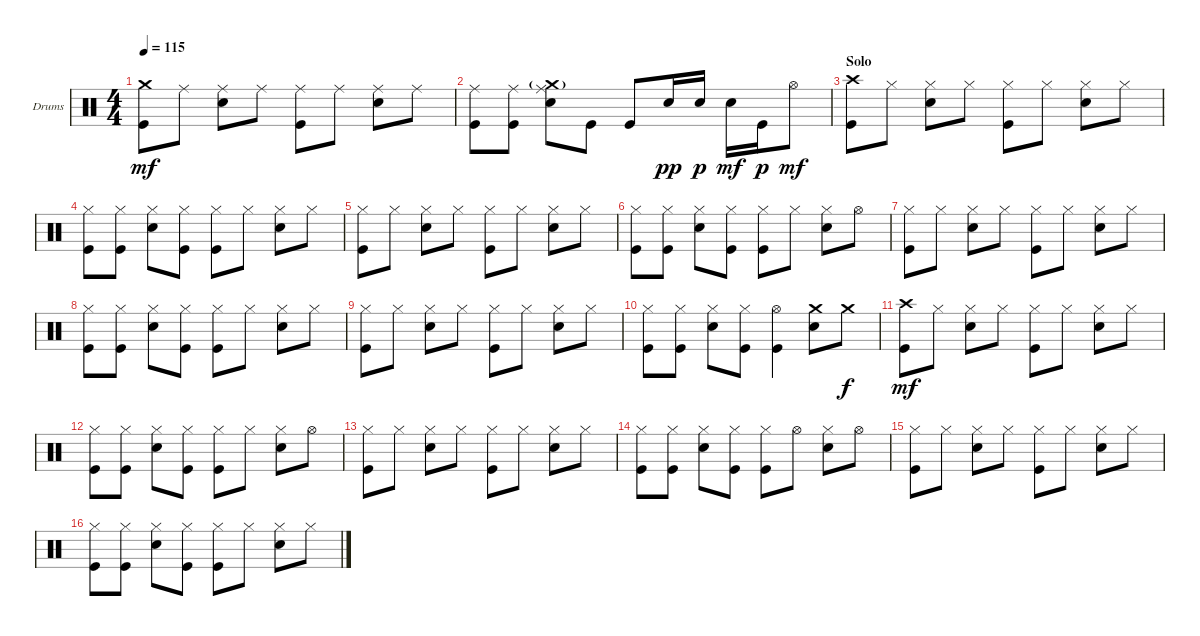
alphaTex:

\defaultSystemsLayout 4
\bracketExtendMode groupsimilarinstruments
\firstSystemTrackNameOrientation horizontal
\otherSystemsTrackNameOrientation horizontal
\track ("Drumkit (Curt Cress)" "Drums") {instrument percussion}
\staff {score}
\articulation defaults
\ts (4 4)
\tempo 115
\clef neutral
\scale
1.02648
\ks c
("Kick (hit)" "Crash medium (hit)").8{dy mf} "Ride (middle)".8 ("Snare (hit) 2" "Ride (middle)").8 "Ride (middle)".8 ("Kick (hit)" "Ride (middle)").8 "Ride (middle)".8 ("Snare (hit) 2" "Ride (middle)").8 "Ride (middle)".8 |
\scale
0.973518 ("Kick (hit)" "Ride (middle)").8 ("Kick (hit)" "Ride (middle)").8 ("Snare (hit) 2" "Ride (middle)" "Crash medium (hit)"{g}).8 "Kick (hit)".8 "Kick (hit)".8 "Snare (hit) 2".16{dy pp} "Snare (hit) 2".16{dy p} "Snare (hit) 2".16{dy mf} "Kick (hit)".16{dy p} "Hi-Hat (open)".8{dy mf} |
\section ("" "Solo")
\scale
1.02648 ("Kick (hit)" "Crash high (hit)").8 "Hi-Hat (closed)".8 ("Hi-Hat (closed)" "Snare (hit) 2").8 "Hi-Hat (closed)".8 ("Hi-Hat (closed)" "Kick (hit)").8 "Hi-Hat (closed)".8 ("Hi-Hat (closed)" "Snare (hit) 2").8 "Hi-Hat (closed)".8 |
\scale
0.973518 ("Kick (hit)" "Hi-Hat (closed)").8 ("Hi-Hat (closed)" "Kick (hit)").8 ("Hi-Hat (closed)" "Snare (hit) 2").8 ("Hi-Hat (closed)" "Kick (hit)").8 ("Hi-Hat (closed)" "Kick (hit)").8 "Hi-Hat (closed)".8 ("Hi-Hat (closed)" "Snare (hit) 2").8 "Hi-Hat (closed)".8 |
\scale
1.02648 ("Kick (hit)" "Hi-Hat (closed)").8 "Hi-Hat (closed)".8 ("Hi-Hat (closed)" "Snare (hit) 2").8 "Hi-Hat (closed)".8 ("Hi-Hat (closed)" "Kick (hit)").8 "Hi-Hat (closed)".8 ("Hi-Hat (closed)" "Snare (hit) 2").8 "Hi-Hat (closed)".8 |
\scale
0.973518 ("Kick (hit)" "Hi-Hat (closed)").8 ("Hi-Hat (closed)" "Kick (hit)").8 ("Hi-Hat (closed)" "Snare (hit) 2").8 ("Hi-Hat (closed)" "Kick (hit)").8 ("Hi-Hat (closed)" "Kick (hit)").8 "Hi-Hat (closed)".8 ("Hi-Hat (closed)" "Snare (hit) 2").8 "Hi-Hat (open)".8 |
\scale
1.02648 ("Kick (hit)" "Hi-Hat (closed)").8 "Hi-Hat (closed)".8 ("Hi-Hat (closed)" "Snare (hit) 2").8 "Hi-Hat (closed)".8 ("Hi-Hat (closed)" "Kick (hit)").8 "Hi-Hat (closed)".8 ("Hi-Hat (closed)" "Snare (hit) 2").8 "Hi-Hat (closed)".8 |
\scale
0.973518 ("Kick (hit)" "Hi-Hat (closed)").8 ("Hi-Hat (closed)" "Kick (hit)").8 ("Hi-Hat (closed)" "Snare (hit) 2").8 ("Hi-Hat (closed)" "Kick (hit)").8 ("Hi-Hat (closed)" "Kick (hit)").8 "Hi-Hat (closed)".8 ("Hi-Hat (closed)" "Snare (hit) 2").8 "Hi-Hat (closed)".8 |
\scale
1.02648 ("Kick (hit)" "Hi-Hat (closed)").8 "Hi-Hat (closed)".8 ("Hi-Hat (closed)" "Snare (hit) 2").8 "Hi-Hat (closed)".8 ("Hi-Hat (closed)" "Kick (hit)").8 "Hi-Hat (closed)".8 ("Hi-Hat (closed)" "Snare (hit) 2").8 "Hi-Hat (closed)".8 |
\scale
0.973518 ("Kick (hit)" "Hi-Hat (closed)").8 ("Hi-Hat (closed)" "Kick (hit)").8 ("Hi-Hat (closed)" "Snare (hit) 2").8 ("Hi-Hat (closed)" "Kick (hit)").8 ("Kick (hit)" "Hi-Hat (open)").4 ("Snare (hit) 2" "Crash medium (hit)").8 "Crash medium (hit)".8{dy f} |
\scale
1.02648 ("Kick (hit)" "Crash high (hit)").8{dy mf} "Hi-Hat (closed)".8 ("Hi-Hat (closed)" "Snare (hit) 2").8 "Hi-Hat (closed)".8 ("Hi-Hat (closed)" "Kick (hit)").8 "Hi-Hat (closed)".8 ("Hi-Hat (closed)" "Snare (hit) 2").8 "Hi-Hat (closed)".8 |
\scale
0.973518 ("Kick (hit)" "Hi-Hat (closed)").8 ("Hi-Hat (closed)" "Kick (hit)").8 ("Hi-Hat (closed)" "Snare (hit) 2").8 ("Hi-Hat (closed)" "Kick (hit)").8 ("Hi-Hat (closed)" "Kick (hit)").8 "Hi-Hat (closed)".8 ("Hi-Hat (closed)" "Snare (hit) 2").8 "Hi-Hat (open)".8 |
\scale
1.02648 ("Kick (hit)" "Hi-Hat (closed)").8 "Hi-Hat (closed)".8 ("Hi-Hat (closed)" "Snare (hit) 2").8 "Hi-Hat (closed)".8 ("Hi-Hat (closed)" "Kick (hit)").8 "Hi-Hat (closed)".8 ("Hi-Hat (closed)" "Snare (hit) 2").8 "Hi-Hat (closed)".8 |
\scale
0.973518 ("Kick (hit)" "Hi-Hat (closed)").8 ("Hi-Hat (closed)" "Kick (hit)").8 ("Hi-Hat (closed)" "Snare (hit) 2").8 ("Hi-Hat (closed)" "Kick (hit)").8 ("Hi-Hat (closed)" "Kick (hit)").8 "Hi-Hat (open)".8 ("Hi-Hat (closed)" "Snare (hit) 2").8 "Hi-Hat (open)".8 |
\scale
1.02648 ("Kick (hit)" "Hi-Hat (closed)").8 "Hi-Hat (closed)".8 ("Hi-Hat (closed)" "Snare (hit) 2").8 "Hi-Hat (closed)".8 ("Hi-Hat (closed)" "Kick (hit)").8 "Hi-Hat (closed)".8 ("Hi-Hat (closed)" "Snare (hit) 2").8 "Hi-Hat (closed)".8 |
\scale
0.973518 ("Kick (hit)" "Hi-Hat (closed)").8 ("Hi-Hat (closed)" "Kick (hit)").8 ("Hi-Hat (closed)" "Snare (hit) 2").8 ("Hi-Hat (closed)" "Kick (hit)").8 ("Hi-Hat (closed)" "Kick (hit)").8 "Hi-Hat (closed)".8 ("Hi-Hat (closed)" "Snare (hit) 2").8 "Hi-Hat (closed)".8
